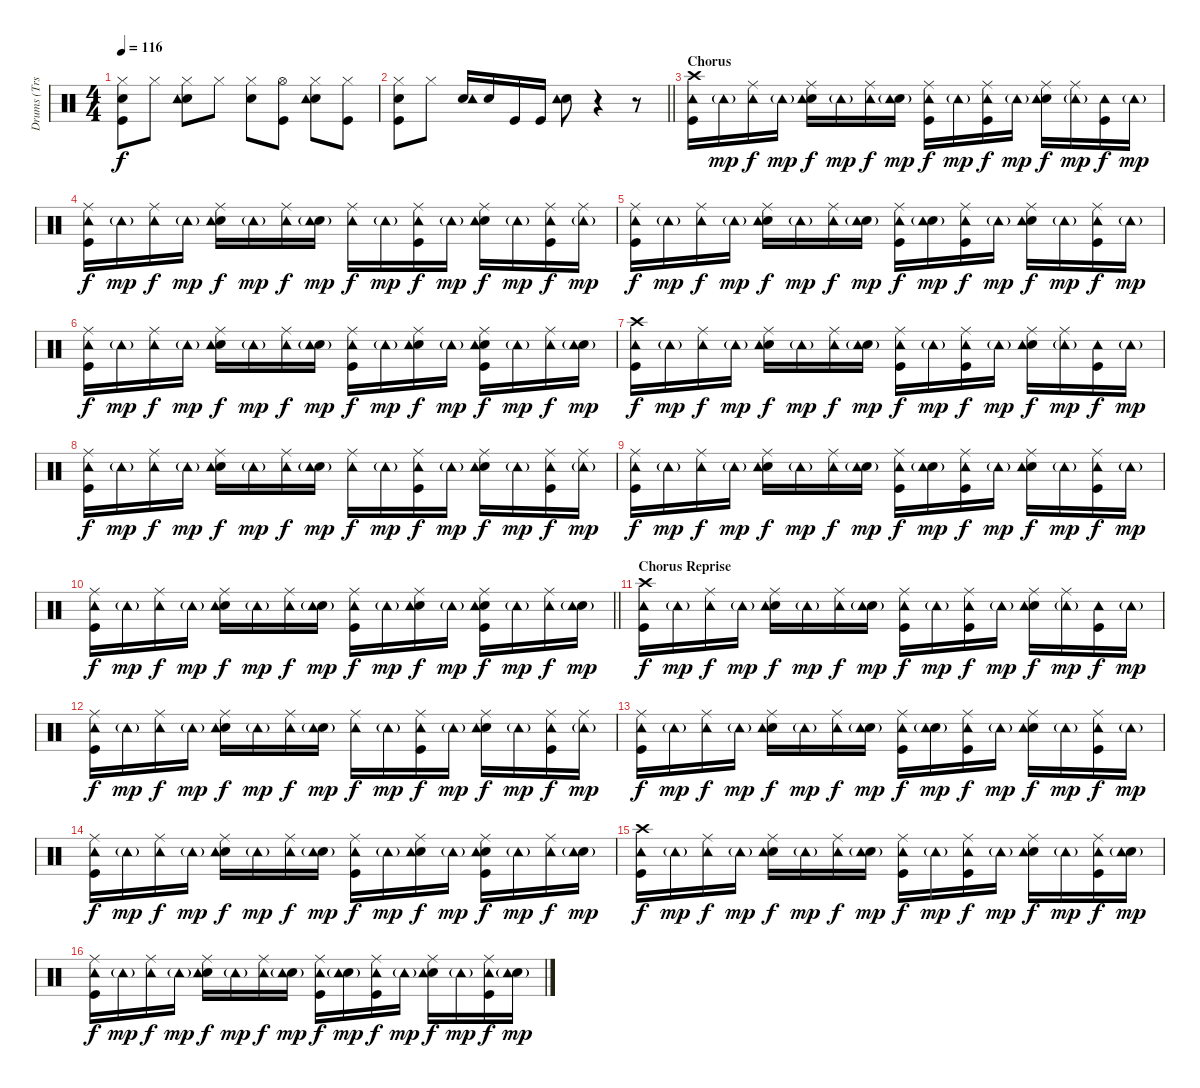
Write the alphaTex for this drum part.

\track ("Drums (Trs. 7-8A, 10A/7-8B, 10B, 12-13B)" "Drums (Trs") {mute instrument percussion}
\staff {score}
\articulation defaults
\ts (4 4)
\tempo 116
\clef neutral
\ks c
("Kick (hit)" "Hi-Hat (closed)" "Electric Snare (hit)").8{dy f} "Hi-Hat (closed)".8 ("Hi-Hat (closed)" "Electric Snare (hit)" "Tambourine (hit)").8 "Hi-Hat (closed)".8 ("Electric Snare (hit)" "Hi-Hat (closed)").8 ("Kick (hit)" "Hi-Hat (open)").8 ("Electric Snare (hit)" "Hi-Hat (closed)" "Tambourine (hit)").8 ("Hi-Hat (closed)" "Kick (hit)").8 |
\barLineRight lightlight
("Hi-Hat (closed)" "Electric Snare (hit)" "Kick (hit)").8 "Hi-Hat (closed)".8 ("Electric Snare (hit)" "Tambourine (hit)").16 "Electric Snare (hit)".16 "Kick (hit)".16 "Kick (hit)".16 ("Electric Snare (hit)" "Tambourine (hit)").8 r.4 r.8 |
\section ("" "Chorus")
("Kick (hit)" "Crash high (hit)" "Tambourine (hit)").16 "Tambourine (hit)"{g}.16{dy mp} ("Ride (middle)" "Tambourine (hit)").16{dy f} "Tambourine (hit)"{g}.16{dy mp} ("Ride (middle)" "Electric Snare (hit)" "Tambourine (hit)").16{dy f} "Tambourine (hit)"{g}.16{dy mp} ("Ride (middle)" "Tambourine (hit)").16{dy f} ("Electric Snare (hit)" "Tambourine (hit)"{g}).16{dy mp} ("Kick (hit)" "Ride (middle)" "Tambourine (hit)").16{dy f} "Tambourine (hit)"{g}.16{dy mp} ("Kick (hit)" "Ride (middle)" "Tambourine (hit)").16{dy f} "Tambourine (hit)"{g}.16{dy mp} ("Electric Snare (hit)" "Ride (middle)" "Tambourine (hit)").16{dy f} ("Ride (middle)" "Tambourine (hit)"{g}).16{dy mp} ("Kick (hit)" "Tambourine (hit)").16{dy f} "Tambourine (hit)"{g}.16{dy mp} |
("Ride (middle)" "Kick (hit)" "Tambourine (hit)").16{dy f} "Tambourine (hit)"{g}.16{dy mp} ("Ride (middle)" "Tambourine (hit)").16{dy f} "Tambourine (hit)"{g}.16{dy mp} ("Electric Snare (hit)" "Ride (middle)" "Tambourine (hit)").16{dy f} "Tambourine (hit)"{g}.16{dy mp} ("Ride (middle)" "Tambourine (hit)").16{dy f} ("Electric Snare (hit)" "Tambourine (hit)"{g}).16{dy mp} ("Ride (middle)" "Tambourine (hit)").16{dy f} "Tambourine (hit)"{g}.16{dy mp} ("Ride (middle)" "Kick (hit)" "Tambourine (hit)").16{dy f} "Tambourine (hit)"{g}.16{dy mp} ("Electric Snare (hit)" "Ride (middle)" "Tambourine (hit)").16{dy f} "Tambourine (hit)"{g}.16{dy mp} ("Ride (middle)" "Kick (hit)" "Tambourine (hit)").16{dy f} ("Ride (middle)" "Tambourine (hit)"{g}).16{dy mp} |
("Ride (middle)" "Kick (hit)" "Tambourine (hit)").16{dy f} "Tambourine (hit)"{g}.16{dy mp} ("Ride (middle)" "Tambourine (hit)").16{dy f} "Tambourine (hit)"{g}.16{dy mp} ("Ride (middle)" "Electric Snare (hit)" "Tambourine (hit)").16{dy f} "Tambourine (hit)"{g}.16{dy mp} ("Ride (middle)" "Tambourine (hit)").16{dy f} ("Electric Snare (hit)" "Tambourine (hit)"{g}).16{dy mp} ("Ride (middle)" "Kick (hit)" "Tambourine (hit)").16{dy f} ("Electric Snare (hit)" "Tambourine (hit)"{g}).16{dy mp} ("Ride (middle)" "Kick (hit)" "Tambourine (hit)").16{dy f} "Tambourine (hit)"{g}.16{dy mp} ("Electric Snare (hit)" "Ride (middle)" "Tambourine (hit)").16{dy f} "Tambourine (hit)"{g}.16{dy mp} ("Ride (middle)" "Kick (hit)" "Tambourine (hit)").16{dy f} "Tambourine (hit)"{g}.16{dy mp} |
("Ride (middle)" "Kick (hit)" "Tambourine (hit)").16{dy f} "Tambourine (hit)"{g}.16{dy mp} ("Ride (middle)" "Tambourine (hit)").16{dy f} "Tambourine (hit)"{g}.16{dy mp} ("Ride (middle)" "Electric Snare (hit)" "Tambourine (hit)").16{dy f} "Tambourine (hit)"{g}.16{dy mp} ("Ride (middle)" "Tambourine (hit)").16{dy f} ("Electric Snare (hit)" "Tambourine (hit)"{g}).16{dy mp} ("Ride (middle)" "Kick (hit)" "Tambourine (hit)").16{dy f} "Tambourine (hit)"{g}.16{dy mp} ("Ride (middle)" "Electric Snare (hit)" "Tambourine (hit)").16{dy f} "Tambourine (hit)"{g}.16{dy mp} ("Electric Snare (hit)" "Kick (hit)" "Ride (middle)" "Tambourine (hit)").16{dy f} "Tambourine (hit)"{g}.16{dy mp} ("Ride (middle)" "Tambourine (hit)").16{dy f} ("Electric Snare (hit)" "Tambourine (hit)"{g}).16{dy mp} |
("Kick (hit)" "Crash high (hit)" "Tambourine (hit)").16{dy f} "Tambourine (hit)"{g}.16{dy mp} ("Ride (middle)" "Tambourine (hit)").16{dy f} "Tambourine (hit)"{g}.16{dy mp} ("Ride (middle)" "Electric Snare (hit)" "Tambourine (hit)").16{dy f} "Tambourine (hit)"{g}.16{dy mp} ("Ride (middle)" "Tambourine (hit)").16{dy f} ("Electric Snare (hit)" "Tambourine (hit)"{g}).16{dy mp} ("Kick (hit)" "Ride (middle)" "Tambourine (hit)").16{dy f} "Tambourine (hit)"{g}.16{dy mp} ("Kick (hit)" "Ride (middle)" "Tambourine (hit)").16{dy f} "Tambourine (hit)"{g}.16{dy mp} ("Electric Snare (hit)" "Ride (middle)" "Tambourine (hit)").16{dy f} ("Ride (middle)" "Tambourine (hit)"{g}).16{dy mp} ("Kick (hit)" "Tambourine (hit)").16{dy f} "Tambourine (hit)"{g}.16{dy mp} |
("Ride (middle)" "Kick (hit)" "Tambourine (hit)").16{dy f} "Tambourine (hit)"{g}.16{dy mp} ("Ride (middle)" "Tambourine (hit)").16{dy f} "Tambourine (hit)"{g}.16{dy mp} ("Electric Snare (hit)" "Ride (middle)" "Tambourine (hit)").16{dy f} "Tambourine (hit)"{g}.16{dy mp} ("Ride (middle)" "Tambourine (hit)").16{dy f} ("Electric Snare (hit)" "Tambourine (hit)"{g}).16{dy mp} ("Ride (middle)" "Tambourine (hit)").16{dy f} "Tambourine (hit)"{g}.16{dy mp} ("Ride (middle)" "Kick (hit)" "Tambourine (hit)").16{dy f} "Tambourine (hit)"{g}.16{dy mp} ("Electric Snare (hit)" "Ride (middle)" "Tambourine (hit)").16{dy f} "Tambourine (hit)"{g}.16{dy mp} ("Ride (middle)" "Kick (hit)" "Tambourine (hit)").16{dy f} ("Ride (middle)" "Tambourine (hit)"{g}).16{dy mp} |
("Ride (middle)" "Kick (hit)" "Tambourine (hit)").16{dy f} "Tambourine (hit)"{g}.16{dy mp} ("Ride (middle)" "Tambourine (hit)").16{dy f} "Tambourine (hit)"{g}.16{dy mp} ("Ride (middle)" "Electric Snare (hit)" "Tambourine (hit)").16{dy f} "Tambourine (hit)"{g}.16{dy mp} ("Ride (middle)" "Tambourine (hit)").16{dy f} ("Electric Snare (hit)" "Tambourine (hit)"{g}).16{dy mp} ("Ride (middle)" "Kick (hit)" "Tambourine (hit)").16{dy f} ("Electric Snare (hit)" "Tambourine (hit)"{g}).16{dy mp} ("Ride (middle)" "Kick (hit)" "Tambourine (hit)").16{dy f} "Tambourine (hit)"{g}.16{dy mp} ("Electric Snare (hit)" "Ride (middle)" "Tambourine (hit)").16{dy f} "Tambourine (hit)"{g}.16{dy mp} ("Ride (middle)" "Kick (hit)" "Tambourine (hit)").16{dy f} "Tambourine (hit)"{g}.16{dy mp} |
\barLineRight lightlight
("Ride (middle)" "Kick (hit)" "Tambourine (hit)").16{dy f} "Tambourine (hit)"{g}.16{dy mp} ("Ride (middle)" "Tambourine (hit)").16{dy f} "Tambourine (hit)"{g}.16{dy mp} ("Ride (middle)" "Electric Snare (hit)" "Tambourine (hit)").16{dy f} "Tambourine (hit)"{g}.16{dy mp} ("Ride (middle)" "Tambourine (hit)").16{dy f} ("Electric Snare (hit)" "Tambourine (hit)"{g}).16{dy mp} ("Ride (middle)" "Kick (hit)" "Tambourine (hit)").16{dy f} "Tambourine (hit)"{g}.16{dy mp} ("Ride (middle)" "Electric Snare (hit)" "Tambourine (hit)").16{dy f} "Tambourine (hit)"{g}.16{dy mp} ("Electric Snare (hit)" "Kick (hit)" "Ride (middle)" "Tambourine (hit)").16{dy f} "Tambourine (hit)"{g}.16{dy mp} ("Ride (middle)" "Tambourine (hit)").16{dy f} ("Electric Snare (hit)" "Tambourine (hit)"{g}).16{dy mp} |
\section ("" "Chorus Reprise")
("Kick (hit)" "Crash high (hit)" "Tambourine (hit)").16{dy f} "Tambourine (hit)"{g}.16{dy mp} ("Ride (middle)" "Tambourine (hit)").16{dy f} "Tambourine (hit)"{g}.16{dy mp} ("Ride (middle)" "Electric Snare (hit)" "Tambourine (hit)").16{dy f} "Tambourine (hit)"{g}.16{dy mp} ("Ride (middle)" "Tambourine (hit)").16{dy f} ("Electric Snare (hit)" "Tambourine (hit)"{g}).16{dy mp} ("Kick (hit)" "Ride (middle)" "Tambourine (hit)").16{dy f} "Tambourine (hit)"{g}.16{dy mp} ("Kick (hit)" "Ride (middle)" "Tambourine (hit)").16{dy f} "Tambourine (hit)"{g}.16{dy mp} ("Electric Snare (hit)" "Ride (middle)" "Tambourine (hit)").16{dy f} ("Ride (middle)" "Tambourine (hit)"{g}).16{dy mp} ("Kick (hit)" "Tambourine (hit)").16{dy f} "Tambourine (hit)"{g}.16{dy mp} |
("Ride (middle)" "Kick (hit)" "Tambourine (hit)").16{dy f} "Tambourine (hit)"{g}.16{dy mp} ("Ride (middle)" "Tambourine (hit)").16{dy f} "Tambourine (hit)"{g}.16{dy mp} ("Electric Snare (hit)" "Ride (middle)" "Tambourine (hit)").16{dy f} "Tambourine (hit)"{g}.16{dy mp} ("Ride (middle)" "Tambourine (hit)").16{dy f} ("Electric Snare (hit)" "Tambourine (hit)"{g}).16{dy mp} ("Ride (middle)" "Tambourine (hit)").16{dy f} "Tambourine (hit)"{g}.16{dy mp} ("Ride (middle)" "Kick (hit)" "Tambourine (hit)").16{dy f} "Tambourine (hit)"{g}.16{dy mp} ("Electric Snare (hit)" "Ride (middle)" "Tambourine (hit)").16{dy f} "Tambourine (hit)"{g}.16{dy mp} ("Ride (middle)" "Kick (hit)" "Tambourine (hit)").16{dy f} ("Ride (middle)" "Tambourine (hit)"{g}).16{dy mp} |
("Ride (middle)" "Kick (hit)" "Tambourine (hit)").16{dy f} "Tambourine (hit)"{g}.16{dy mp} ("Ride (middle)" "Tambourine (hit)").16{dy f} "Tambourine (hit)"{g}.16{dy mp} ("Ride (middle)" "Electric Snare (hit)" "Tambourine (hit)").16{dy f} "Tambourine (hit)"{g}.16{dy mp} ("Ride (middle)" "Tambourine (hit)").16{dy f} ("Electric Snare (hit)" "Tambourine (hit)"{g}).16{dy mp} ("Ride (middle)" "Kick (hit)" "Tambourine (hit)").16{dy f} ("Electric Snare (hit)" "Tambourine (hit)"{g}).16{dy mp} ("Ride (middle)" "Kick (hit)" "Tambourine (hit)").16{dy f} "Tambourine (hit)"{g}.16{dy mp} ("Electric Snare (hit)" "Ride (middle)" "Tambourine (hit)").16{dy f} "Tambourine (hit)"{g}.16{dy mp} ("Ride (middle)" "Kick (hit)" "Tambourine (hit)").16{dy f} "Tambourine (hit)"{g}.16{dy mp} |
("Ride (middle)" "Kick (hit)" "Tambourine (hit)").16{dy f} "Tambourine (hit)"{g}.16{dy mp} ("Ride (middle)" "Tambourine (hit)").16{dy f} "Tambourine (hit)"{g}.16{dy mp} ("Ride (middle)" "Electric Snare (hit)" "Tambourine (hit)").16{dy f} "Tambourine (hit)"{g}.16{dy mp} ("Ride (middle)" "Tambourine (hit)").16{dy f} ("Electric Snare (hit)" "Tambourine (hit)"{g}).16{dy mp} ("Ride (middle)" "Kick (hit)" "Tambourine (hit)").16{dy f} "Tambourine (hit)"{g}.16{dy mp} ("Ride (middle)" "Electric Snare (hit)" "Tambourine (hit)").16{dy f} "Tambourine (hit)"{g}.16{dy mp} ("Electric Snare (hit)" "Kick (hit)" "Ride (middle)" "Tambourine (hit)").16{dy f} "Tambourine (hit)"{g}.16{dy mp} ("Ride (middle)" "Tambourine (hit)").16{dy f} ("Electric Snare (hit)" "Tambourine (hit)"{g}).16{dy mp} |
("Crash high (hit)" "Kick (hit)" "Tambourine (hit)").16{dy f} "Tambourine (hit)"{g}.16{dy mp} ("Ride (middle)" "Tambourine (hit)").16{dy f} "Tambourine (hit)"{g}.16{dy mp} ("Ride (middle)" "Electric Snare (hit)" "Tambourine (hit)").16{dy f} "Tambourine (hit)"{g}.16{dy mp} ("Ride (middle)" "Tambourine (hit)").16{dy f} ("Electric Snare (hit)" "Tambourine (hit)"{g}).16{dy mp} ("Kick (hit)" "Ride (middle)" "Tambourine (hit)").16{dy f} "Tambourine (hit)"{g}.16{dy mp} ("Kick (hit)" "Ride (middle)" "Tambourine (hit)").16{dy f} "Tambourine (hit)"{g}.16{dy mp} ("Electric Snare (hit)" "Ride (middle)" "Tambourine (hit)").16{dy f} "Tambourine (hit)"{g}.16{dy mp} ("Ride (middle)" "Kick (hit)" "Tambourine (hit)").16{dy f} ("Electric Snare (hit)" "Tambourine (hit)"{g}).16{dy mp} |
("Kick (hit)" "Ride (middle)" "Tambourine (hit)").16{dy f} "Tambourine (hit)"{g}.16{dy mp} ("Ride (middle)" "Tambourine (hit)").16{dy f} "Tambourine (hit)"{g}.16{dy mp} ("Ride (middle)" "Electric Snare (hit)" "Tambourine (hit)").16{dy f} "Tambourine (hit)"{g}.16{dy mp} ("Ride (middle)" "Tambourine (hit)").16{dy f} ("Electric Snare (hit)" "Tambourine (hit)"{g}).16{dy mp} ("Ride (middle)" "Kick (hit)" "Tambourine (hit)").16{dy f} ("Electric Snare (hit)" "Tambourine (hit)"{g}).16{dy mp} ("Ride (middle)" "Kick (hit)" "Tambourine (hit)").16{dy f} "Tambourine (hit)"{g}.16{dy mp} ("Ride (middle)" "Electric Snare (hit)" "Tambourine (hit)").16{dy f} "Tambourine (hit)"{g}.16{dy mp} ("Ride (middle)" "Kick (hit)" "Tambourine (hit)").16{dy f} ("Electric Snare (hit)" "Tambourine (hit)"{g}).16{dy mp}
